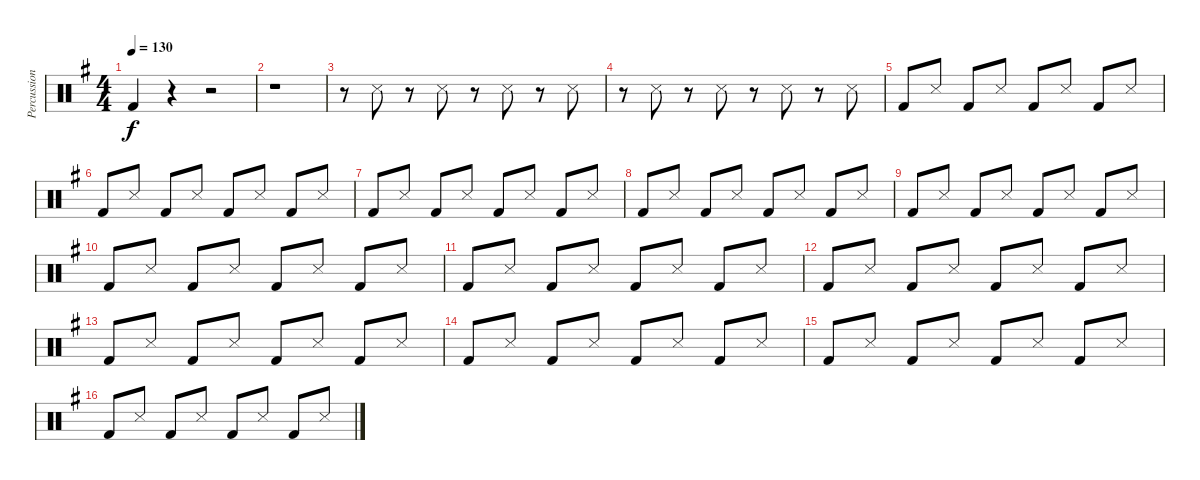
\track ("Percussions" "Percussion") {instrument percussion}
\staff {score}
\articulation defaults
\ts (4 4)
\tempo 130
\clef neutral
\ks g "Kick (hit) 2".4{dy f}
r.4 r.2 |
r.1 |
r.8 "Snare (side stick) 3".8 r.8 "Snare (side stick) 3".8 r.8 "Snare (side stick) 3".8 r.8 "Snare (side stick) 3".8 |
r.8 "Snare (side stick) 3".8 r.8 "Snare (side stick) 3".8 r.8 "Snare (side stick) 3".8 r.8 "Snare (side stick) 3".8 |
"Kick (hit) 2".8 "Snare (side stick) 3".8 "Kick (hit) 2".8 "Snare (side stick) 3".8 "Kick (hit) 2".8 "Snare (side stick) 3".8 "Kick (hit) 2".8 "Snare (side stick) 3".8 |
"Kick (hit) 2".8 "Snare (side stick) 3".8 "Kick (hit) 2".8 "Snare (side stick) 3".8 "Kick (hit) 2".8 "Snare (side stick) 3".8 "Kick (hit) 2".8 "Snare (side stick) 3".8 |
"Kick (hit) 2".8 "Snare (side stick) 3".8 "Kick (hit) 2".8 "Snare (side stick) 3".8 "Kick (hit) 2".8 "Snare (side stick) 3".8 "Kick (hit) 2".8 "Snare (side stick) 3".8 |
"Kick (hit) 2".8 "Snare (side stick) 3".8 "Kick (hit) 2".8 "Snare (side stick) 3".8 "Kick (hit) 2".8 "Snare (side stick) 3".8 "Kick (hit) 2".8 "Snare (side stick) 3".8 |
"Kick (hit) 2".8 "Snare (side stick) 3".8 "Kick (hit) 2".8 "Snare (side stick) 3".8 "Kick (hit) 2".8 "Snare (side stick) 3".8 "Kick (hit) 2".8 "Snare (side stick) 3".8 |
"Kick (hit) 2".8 "Snare (side stick) 3".8 "Kick (hit) 2".8 "Snare (side stick) 3".8 "Kick (hit) 2".8 "Snare (side stick) 3".8 "Kick (hit) 2".8 "Snare (side stick) 3".8 |
"Kick (hit) 2".8 "Snare (side stick) 3".8 "Kick (hit) 2".8 "Snare (side stick) 3".8 "Kick (hit) 2".8 "Snare (side stick) 3".8 "Kick (hit) 2".8 "Snare (side stick) 3".8 |
"Kick (hit) 2".8 "Snare (side stick) 3".8 "Kick (hit) 2".8 "Snare (side stick) 3".8 "Kick (hit) 2".8 "Snare (side stick) 3".8 "Kick (hit) 2".8 "Snare (side stick) 3".8 |
"Kick (hit) 2".8 "Snare (side stick) 3".8 "Kick (hit) 2".8 "Snare (side stick) 3".8 "Kick (hit) 2".8 "Snare (side stick) 3".8 "Kick (hit) 2".8 "Snare (side stick) 3".8 |
"Kick (hit) 2".8 "Snare (side stick) 3".8 "Kick (hit) 2".8 "Snare (side stick) 3".8 "Kick (hit) 2".8 "Snare (side stick) 3".8 "Kick (hit) 2".8 "Snare (side stick) 3".8 |
"Kick (hit) 2".8 "Snare (side stick) 3".8 "Kick (hit) 2".8 "Snare (side stick) 3".8 "Kick (hit) 2".8 "Snare (side stick) 3".8 "Kick (hit) 2".8 "Snare (side stick) 3".8 |
"Kick (hit) 2".8 "Snare (side stick) 3".8 "Kick (hit) 2".8 "Snare (side stick) 3".8 "Kick (hit) 2".8 "Snare (side stick) 3".8 "Kick (hit) 2".8 "Snare (side stick) 3".8
